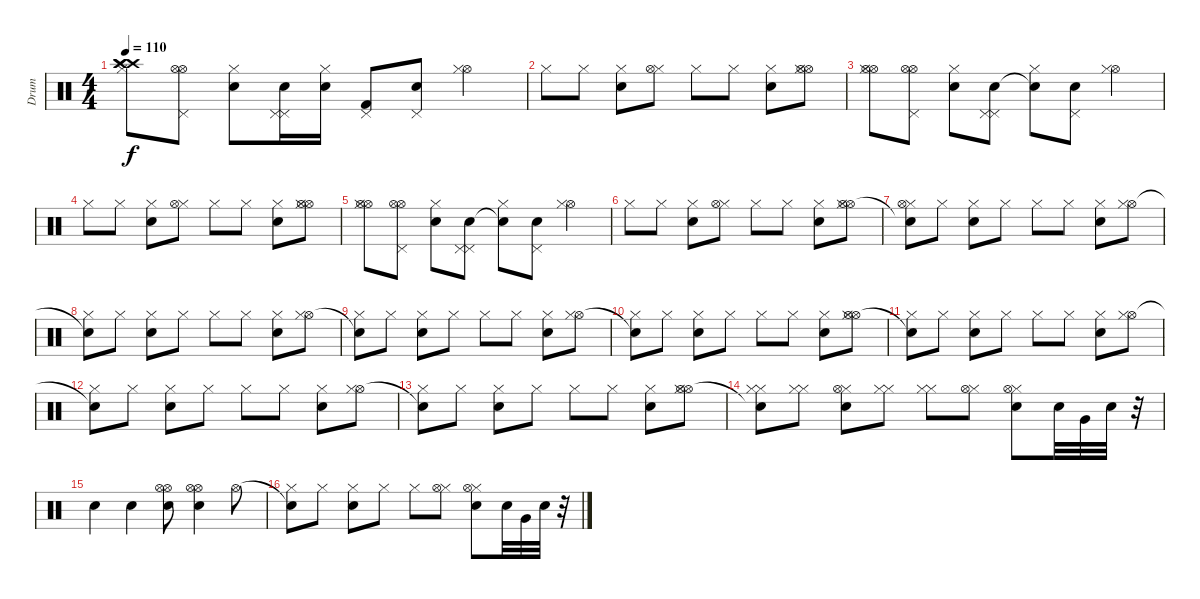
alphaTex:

\track ("Drum" "Drum") {instrument percussion}
\staff {score}
\articulation defaults
\ts (4 4)
\tempo 110
\clef neutral
\ks c
("Crash high (hit)" "Crash high (hit)" "Crash high (hit)" "Hi-Hat (closed)").8{dy f} ("Hi-Hat (open)" "Hi-Hat (open)" "Pedal Hi-Hat (hit)").8 ("Electric Snare (hit)" "Hi-Hat (closed)").8 ("Electric Snare (hit)" "Pedal Hi-Hat (hit)" "Pedal Hi-Hat (hit)").16 ("Hi-Hat (closed)" "Electric Snare (hit)").16 ("Pedal Hi-Hat (hit)" "Kick (hit) 2").8 ("Electric Snare (hit)" "Pedal Hi-Hat (hit)").8 ("Hi-Hat (open)" "Hi-Hat (closed)").4 |
"Hi-Hat (closed)".8 "Hi-Hat (closed)".8 ("Electric Snare (hit)" "Hi-Hat (closed)").8 ("Hi-Hat (closed)" "Hi-Hat (open)").8 "Hi-Hat (closed)".8 "Hi-Hat (closed)".8 ("Electric Snare (hit)" "Hi-Hat (closed)").8 ("Hi-Hat (open)" "Hi-Hat (closed)" "Hi-Hat (open)").8 |
("Hi-Hat (open)" "Hi-Hat (open)" "Hi-Hat (closed)").8 ("Hi-Hat (open)" "Hi-Hat (open)" "Pedal Hi-Hat (hit)").8 ("Electric Snare (hit)" "Hi-Hat (closed)").8 ("Electric Snare (hit)" "Pedal Hi-Hat (hit)" "Pedal Hi-Hat (hit)").8 ("Snare (hit)"{t} "Hi-Hat (closed)").8 ("Electric Snare (hit)" "Pedal Hi-Hat (hit)").8 ("Hi-Hat (open)" "Hi-Hat (closed)").4 |
"Hi-Hat (closed)".8 "Hi-Hat (closed)".8 ("Electric Snare (hit)" "Hi-Hat (closed)").8 ("Hi-Hat (closed)" "Hi-Hat (open)").8 "Hi-Hat (closed)".8 "Hi-Hat (closed)".8 ("Electric Snare (hit)" "Hi-Hat (closed)").8 ("Hi-Hat (open)" "Hi-Hat (closed)" "Hi-Hat (open)").8 |
("Hi-Hat (open)" "Hi-Hat (open)" "Hi-Hat (closed)").8 ("Hi-Hat (open)" "Hi-Hat (open)" "Pedal Hi-Hat (hit)").8 ("Electric Snare (hit)" "Hi-Hat (closed)").8 ("Electric Snare (hit)" "Pedal Hi-Hat (hit)" "Pedal Hi-Hat (hit)").8 ("Snare (hit)"{t} "Hi-Hat (closed)").8 ("Electric Snare (hit)" "Pedal Hi-Hat (hit)").8 ("Hi-Hat (open)" "Hi-Hat (closed)").4 |
"Hi-Hat (closed)".8 "Hi-Hat (closed)".8 ("Electric Snare (hit)" "Hi-Hat (closed)").8 ("Hi-Hat (closed)" "Hi-Hat (open)").8 "Hi-Hat (closed)".8 "Hi-Hat (closed)".8 ("Electric Snare (hit)" "Hi-Hat (closed)").8 ("Hi-Hat (open)" "Hi-Hat (closed)" "Hi-Hat (open)").8 |
("Snare (hit)"{t} "Hi-Hat (closed)" "Hi-Hat (open)").8 "Hi-Hat (closed)".8 ("Electric Snare (hit)" "Hi-Hat (closed)").8 "Hi-Hat (closed)".8 "Hi-Hat (closed)".8 "Hi-Hat (closed)".8 ("Electric Snare (hit)" "Hi-Hat (closed)").8 ("Hi-Hat (open)" "Hi-Hat (closed)").8 |
("Snare (hit)"{t} "Hi-Hat (closed)").8 "Hi-Hat (closed)".8 ("Electric Snare (hit)" "Hi-Hat (closed)").8 "Hi-Hat (closed)".8 "Hi-Hat (closed)".8 "Hi-Hat (closed)".8 ("Electric Snare (hit)" "Hi-Hat (closed)").8 ("Hi-Hat (open)" "Hi-Hat (closed)").8 |
("Snare (hit)"{t} "Hi-Hat (closed)").8 "Hi-Hat (closed)".8 ("Electric Snare (hit)" "Hi-Hat (closed)").8 "Hi-Hat (closed)".8 "Hi-Hat (closed)".8 "Hi-Hat (closed)".8 ("Electric Snare (hit)" "Hi-Hat (closed)").8 ("Hi-Hat (open)" "Hi-Hat (closed)").8 |
("Snare (hit)"{t} "Hi-Hat (closed)").8 "Hi-Hat (closed)".8 ("Electric Snare (hit)" "Hi-Hat (closed)").8 "Hi-Hat (closed)".8 "Hi-Hat (closed)".8 "Hi-Hat (closed)".8 ("Electric Snare (hit)" "Hi-Hat (closed)").8 ("Hi-Hat (open)" "Hi-Hat (closed)" "Hi-Hat (open)").8 |
("Snare (hit)"{t} "Hi-Hat (closed)").8 "Hi-Hat (closed)".8 ("Electric Snare (hit)" "Hi-Hat (closed)").8 "Hi-Hat (closed)".8 "Hi-Hat (closed)".8 "Hi-Hat (closed)".8 ("Electric Snare (hit)" "Hi-Hat (closed)").8 ("Hi-Hat (open)" "Hi-Hat (closed)").8 |
("Snare (hit)"{t} "Hi-Hat (closed)").8 "Hi-Hat (closed)".8 ("Electric Snare (hit)" "Hi-Hat (closed)").8 "Hi-Hat (closed)".8 "Hi-Hat (closed)".8 "Hi-Hat (closed)".8 ("Electric Snare (hit)" "Hi-Hat (closed)").8 ("Hi-Hat (open)" "Hi-Hat (closed)").8 |
("Snare (hit)"{t} "Hi-Hat (closed)").8 "Hi-Hat (closed)".8 ("Electric Snare (hit)" "Hi-Hat (closed)").8 "Hi-Hat (closed)".8 "Hi-Hat (closed)".8 "Hi-Hat (closed)".8 ("Electric Snare (hit)" "Hi-Hat (closed)").8 ("Hi-Hat (open)" "Hi-Hat (closed)" "Hi-Hat (open)").8 |
("Snare (hit)"{t} "Hi-Hat (closed)" "Hi-Hat (closed)").8 ("Hi-Hat (closed)" "Hi-Hat (closed)").8 ("Electric Snare (hit)" "Hi-Hat (closed)" "Hi-Hat (open)").8 ("Hi-Hat (closed)" "Hi-Hat (closed)").8 ("Hi-Hat (closed)" "Hi-Hat (closed)").8 ("Hi-Hat (closed)" "Hi-Hat (open)").8 ("Electric Snare (hit)" "Hi-Hat (closed)" "Hi-Hat (open)").8 "Electric Snare (hit)".32 "Very Low Tom (hit)".32 "Electric Snare (hit)".32 r.32 |
"Electric Snare (hit)".4 "Electric Snare (hit)".4 ("Hi-Hat (open)" "Hi-Hat (open)" "Electric Snare (hit)").8 ("Hi-Hat (open)" "Hi-Hat (open)" "Electric Snare (hit)").4 "Hi-Hat (open)".8 |
("Snare (hit)"{t} "Hi-Hat (closed)").8 "Hi-Hat (closed)".8 ("Electric Snare (hit)" "Hi-Hat (closed)").8 "Hi-Hat (closed)".8 "Hi-Hat (closed)".8 ("Hi-Hat (closed)" "Hi-Hat (open)").8 ("Electric Snare (hit)" "Hi-Hat (closed)" "Hi-Hat (open)").8 "Electric Snare (hit)".32 "Very Low Tom (hit)".32 "Electric Snare (hit)".32 r.32
